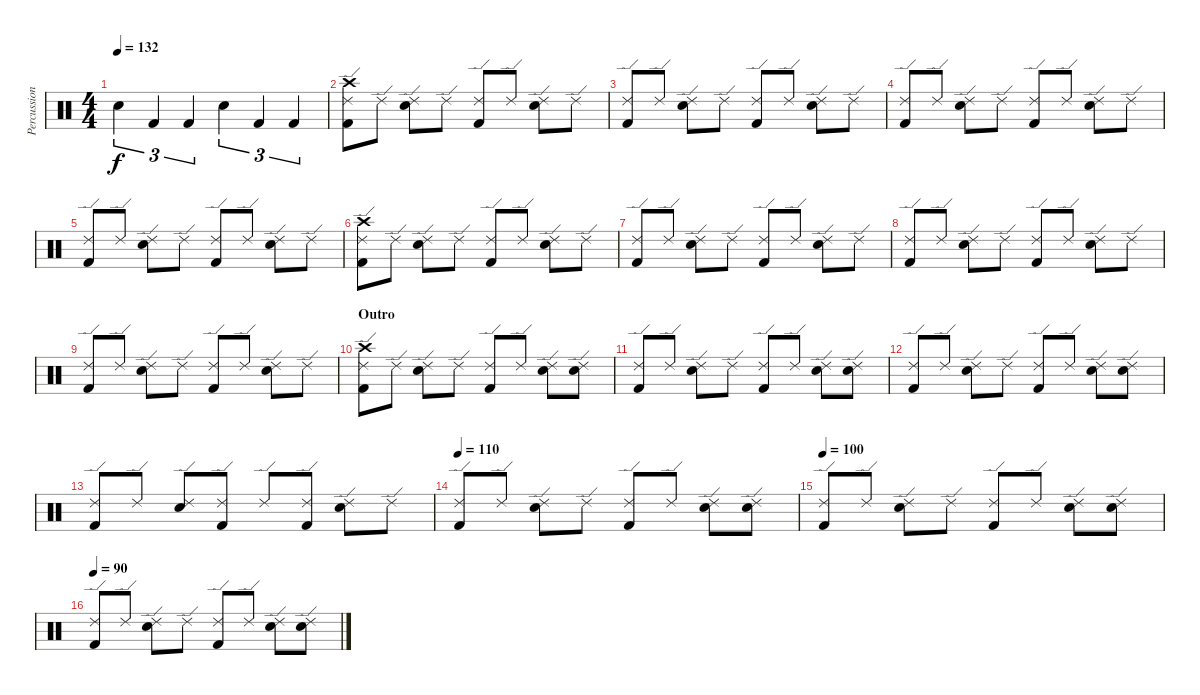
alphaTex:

\track ("Percussion" "Percussion") {instrument percussion}
\staff {score}
\articulation defaults
\ts (4 4)
\tempo 132
\clef neutral
\ks c "Snare (hit) 2".4{tu (3 2) dy f} "Kick (hit) 2".4{tu (3 2)} "Kick (hit) 2".4{tu (3 2)} "Snare (hit) 2".4{tu (3 2)} "Kick (hit) 2".4{tu (3 2)} "Kick (hit) 2".4{tu (3 2)}
|
("Ride (edge) 2" "Crash high (hit)" "Kick (hit) 2").8 "Ride (edge) 2".8 ("Ride (edge) 2" "Snare (hit) 2").8 "Ride (edge) 2".8 ("Ride (edge) 2" "Kick (hit) 2").8 "Ride (edge) 2".8 ("Ride (edge) 2" "Snare (hit) 2").8 "Ride (edge) 2".8 |
("Ride (edge) 2" "Kick (hit) 2").8 "Ride (edge) 2".8 ("Ride (edge) 2" "Snare (hit) 2").8 "Ride (edge) 2".8 ("Ride (edge) 2" "Kick (hit) 2").8 "Ride (edge) 2".8 ("Ride (edge) 2" "Snare (hit) 2").8 "Ride (edge) 2".8 |
("Ride (edge) 2" "Kick (hit) 2").8 "Ride (edge) 2".8 ("Ride (edge) 2" "Snare (hit) 2").8 "Ride (edge) 2".8 ("Ride (edge) 2" "Kick (hit) 2").8 "Ride (edge) 2".8 ("Ride (edge) 2" "Snare (hit) 2").8 "Ride (edge) 2".8 |
("Ride (edge) 2" "Kick (hit) 2").8 "Ride (edge) 2".8 ("Ride (edge) 2" "Snare (hit) 2").8 "Ride (edge) 2".8 ("Ride (edge) 2" "Kick (hit) 2").8 "Ride (edge) 2".8 ("Ride (edge) 2" "Snare (hit) 2").8 "Ride (edge) 2".8 |
("Ride (edge) 2" "Crash high (hit)" "Kick (hit) 2").8 "Ride (edge) 2".8 ("Ride (edge) 2" "Snare (hit) 2").8 "Ride (edge) 2".8 ("Ride (edge) 2" "Kick (hit) 2").8 "Ride (edge) 2".8 ("Ride (edge) 2" "Snare (hit) 2").8 "Ride (edge) 2".8 |
("Ride (edge) 2" "Kick (hit) 2").8 "Ride (edge) 2".8 ("Ride (edge) 2" "Snare (hit) 2").8 "Ride (edge) 2".8 ("Ride (edge) 2" "Kick (hit) 2").8 "Ride (edge) 2".8 ("Ride (edge) 2" "Snare (hit) 2").8 "Ride (edge) 2".8 |
("Ride (edge) 2" "Kick (hit) 2").8 "Ride (edge) 2".8 ("Ride (edge) 2" "Snare (hit) 2").8 "Ride (edge) 2".8 ("Ride (edge) 2" "Kick (hit) 2").8 "Ride (edge) 2".8 ("Ride (edge) 2" "Snare (hit) 2").8 "Ride (edge) 2".8 |
("Ride (edge) 2" "Kick (hit) 2").8 "Ride (edge) 2".8 ("Ride (edge) 2" "Snare (hit) 2").8 "Ride (edge) 2".8 ("Ride (edge) 2" "Kick (hit) 2").8 "Ride (edge) 2".8 ("Ride (edge) 2" "Snare (hit) 2").8 "Ride (edge) 2".8 |
\section ("" "Outro")
("Ride (edge) 2" "Crash high (hit)" "Kick (hit) 2").8 "Ride (edge) 2".8 ("Ride (edge) 2" "Snare (hit) 2").8 "Ride (edge) 2".8 ("Ride (edge) 2" "Kick (hit) 2").8 "Ride (edge) 2".8 ("Ride (edge) 2" "Snare (hit) 2").8 ("Ride (edge) 2" "Snare (hit) 2").8 |
("Ride (edge) 2" "Kick (hit) 2").8 "Ride (edge) 2".8 ("Ride (edge) 2" "Snare (hit) 2").8 "Ride (edge) 2".8 ("Ride (edge) 2" "Kick (hit) 2").8 "Ride (edge) 2".8 ("Ride (edge) 2" "Snare (hit) 2").8 ("Ride (edge) 2" "Snare (hit) 2").8 |
("Ride (edge) 2" "Kick (hit) 2").8 "Ride (edge) 2".8 ("Ride (edge) 2" "Snare (hit) 2").8 "Ride (edge) 2".8 ("Ride (edge) 2" "Kick (hit) 2").8 "Ride (edge) 2".8 ("Ride (edge) 2" "Snare (hit) 2").8 ("Ride (edge) 2" "Snare (hit) 2").8 |
("Ride (edge) 2" "Kick (hit) 2").8 "Ride (edge) 2".8 ("Ride (edge) 2" "Snare (hit) 2").8 ("Ride (edge) 2" "Kick (hit) 2").8 "Ride (edge) 2".8 ("Ride (edge) 2" "Kick (hit) 2").8 ("Ride (edge) 2" "Snare (hit) 2").8 "Ride (edge) 2".8 |
\tempo 110
("Ride (edge) 2" "Kick (hit) 2").8 "Ride (edge) 2".8 ("Ride (edge) 2" "Snare (hit) 2").8 "Ride (edge) 2".8 ("Ride (edge) 2" "Kick (hit) 2").8 "Ride (edge) 2".8 ("Ride (edge) 2" "Snare (hit) 2").8 ("Ride (edge) 2" "Snare (hit) 2").8 |
\tempo 100
("Ride (edge) 2" "Kick (hit) 2").8 "Ride (edge) 2".8 ("Ride (edge) 2" "Snare (hit) 2").8 "Ride (edge) 2".8 ("Ride (edge) 2" "Kick (hit) 2").8 "Ride (edge) 2".8 ("Ride (edge) 2" "Snare (hit) 2").8 ("Ride (edge) 2" "Snare (hit) 2").8 |
\tempo 90
("Ride (edge) 2" "Kick (hit) 2").8 "Ride (edge) 2".8 ("Ride (edge) 2" "Snare (hit) 2").8 "Ride (edge) 2".8 ("Ride (edge) 2" "Kick (hit) 2").8 "Ride (edge) 2".8 ("Ride (edge) 2" "Snare (hit) 2").8 ("Ride (edge) 2" "Snare (hit) 2").8
